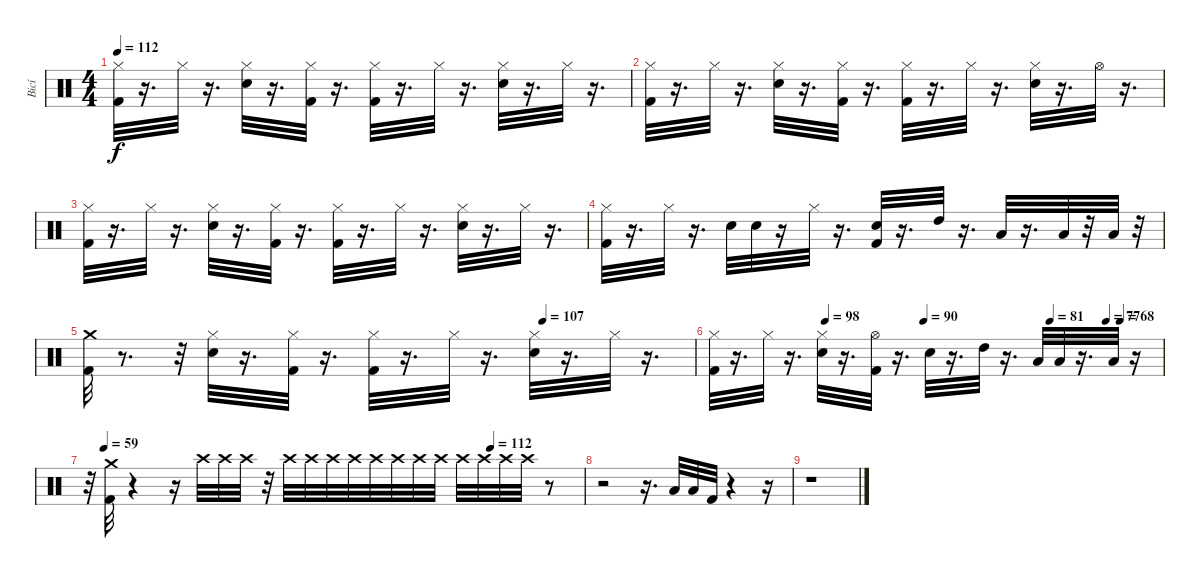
\track ("Bicí" "Bicí") {instrument percussion}
\staff {score}
\articulation defaults
\ts (4 4)
\tempo 112
\clef neutral
\ks c
("Kick (hit) 2" "Hi-Hat (closed)").32{dy f} r.16{d} "Hi-Hat (closed)".32 r.16{d} ("Snare (hit) 2" "Hi-Hat (closed)").32 r.16{d} ("Kick (hit) 2" "Hi-Hat (closed)").32 r.16{d} ("Kick (hit) 2" "Hi-Hat (closed)").32 r.16{d} "Hi-Hat (closed)".32 r.16{d} ("Snare (hit) 2" "Hi-Hat (closed)").32 r.16{d} "Hi-Hat (closed)".32 r.16{d} |
("Kick (hit) 2" "Hi-Hat (closed)").32 r.16{d} "Hi-Hat (closed)".32 r.16{d} ("Snare (hit) 2" "Hi-Hat (closed)").32 r.16{d} ("Kick (hit) 2" "Hi-Hat (closed)").32 r.16{d} ("Kick (hit) 2" "Hi-Hat (closed)").32 r.16{d} "Hi-Hat (closed)".32 r.16{d} ("Snare (hit) 2" "Hi-Hat (closed)").32 r.16{d} "Hi-Hat (open)".32 r.16{d} |
("Hi-Hat (closed)" "Kick (hit) 2").32 r.16{d} "Hi-Hat (closed)".32 r.16{d} ("Snare (hit) 2" "Hi-Hat (closed)").32 r.16{d} ("Kick (hit) 2" "Hi-Hat (closed)").32 r.16{d} ("Hi-Hat (closed)" "Kick (hit) 2").32 r.16{d} "Hi-Hat (closed)".32 r.16{d} ("Hi-Hat (closed)" "Snare (hit) 2").32 r.16{d} "Hi-Hat (closed)".32 r.16{d} |
("Hi-Hat (closed)" "Kick (hit) 2").32 r.16{d} "Hi-Hat (closed)".32 r.16{d} "Snare (hit) 2".32 "Snare (hit) 2".32 r.16 "Hi-Hat (closed)".32 r.16{d} ("Kick (hit) 2" "Snare (hit) 2").32 r.16{d} "High Tom (hit)".32 r.16{d} "Low Tom (hit)".32 r.16{d} "Low Floor Tom (hit)".32 r.32 "Low Floor Tom (hit)".32 r.32 |
\tempo (107 0.75)
("Kick (hit) 2" "Crash medium (hit)").32 r.8{d} r.32 ("Snare (hit) 2" "Hi-Hat (closed)").32 r.16{d} ("Kick (hit) 2" "Hi-Hat (closed)").32 r.16{d} ("Kick (hit) 2" "Hi-Hat (closed)").32 r.16{d} "Hi-Hat (closed)".32 r.16{d} ("Hi-Hat (closed)" "Snare (hit) 2").32 r.16{d} "Hi-Hat (closed)".32 r.16{d} |
\tempo (98 0.25)
\tempo (90 0.46875)
\tempo (81 0.75)
\tempo (77 0.875)
\tempo (68 0.90625)
("Kick (hit) 2" "Hi-Hat (closed)").32 r.16{d} "Hi-Hat (closed)".32 r.16{d} ("Hi-Hat (closed)" "Snare (hit) 2").32 r.16{d} ("Kick (hit) 2" "Hi-Hat (open)").32 r.16{d} "Snare (hit) 2".32 r.16{d} "High Tom (hit)".32 r.16{d} "Low Tom (hit)".32 "Low Tom (hit)".32 r.16{d} "Low Floor Tom (hit)".32 r.16 |
\tempo (59 0.03125)
\tempo (112 0.8125)
r.32 ("Crash medium (hit)" "Kick (hit) 2").32 r.4 r.16 "Crash high (hit)".32 "Crash high (hit)".32 "Crash high (hit)".32 r.32 "Crash high (hit)".32 "Crash high (hit)".32 "Crash high (hit)".32 "Crash high (hit)".32 "Crash high (hit)".32 "Crash high (hit)".32 "Crash high (hit)".32 "Crash high (hit)".32 "Crash high (hit)".32 "Crash high (hit)".32 "Crash high (hit)".32 "Crash high (hit)".32 r.8 |
r.2 r.16{d} "Low Floor Tom (hit)".32 "Low Tom (hit)".32 "Kick (hit) 2".32 r.4 r.16 |
r.1
